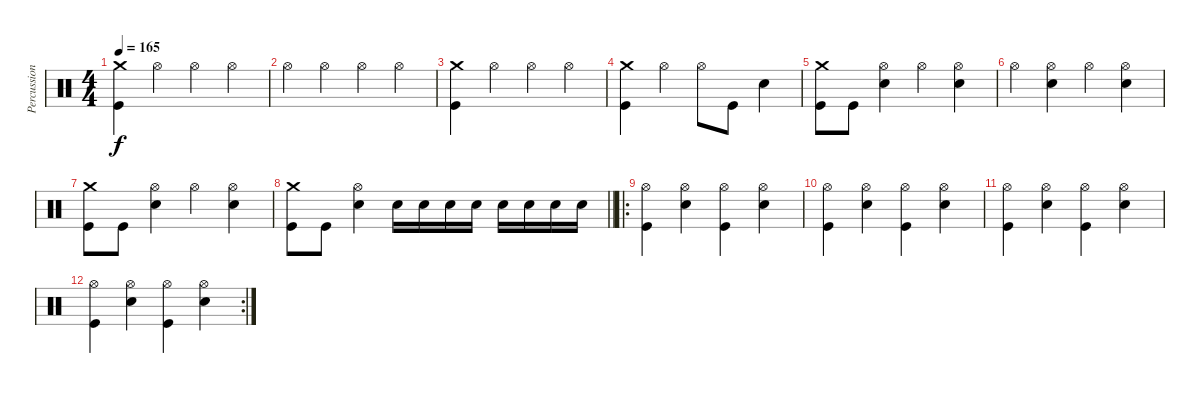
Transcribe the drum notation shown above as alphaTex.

\track ("Percussion" "Percussion") {instrument percussion}
\staff {score}
\articulation defaults
\ts (4 4)
\tempo 165
\clef neutral
\ks c
("Crash medium (hit)" "Kick (hit)").4{dy f} "Hi-Hat (open)".4 "Hi-Hat (open)".4 "Hi-Hat (open)".4 |
"Hi-Hat (open)".4 "Hi-Hat (open)".4 "Hi-Hat (open)".4 "Hi-Hat (open)".4 |
("Crash medium (hit)" "Kick (hit)").4 "Hi-Hat (open)".4 "Hi-Hat (open)".4 "Hi-Hat (open)".4 |
("Crash medium (hit)" "Kick (hit)").4 "Hi-Hat (open)".4 "Hi-Hat (open)".8 "Kick (hit)".8 "Snare (hit) 2".4 |
("Crash medium (hit)" "Kick (hit)").8 "Kick (hit)".8 ("Hi-Hat (open)" "Snare (hit) 2").4 "Hi-Hat (open)".4 ("Hi-Hat (open)" "Snare (hit) 2").4 |
"Hi-Hat (open)".4 ("Hi-Hat (open)" "Snare (hit) 2").4 "Hi-Hat (open)".4 ("Hi-Hat (open)" "Snare (hit) 2").4 |
("Crash medium (hit)" "Kick (hit)").8 "Kick (hit)".8 ("Hi-Hat (open)" "Snare (hit) 2").4 "Hi-Hat (open)".4 ("Hi-Hat (open)" "Snare (hit) 2").4 |
\barLineRight lightlight
("Crash medium (hit)" "Kick (hit)").8 "Kick (hit)".8 ("Hi-Hat (open)" "Snare (hit) 2").4 "Snare (hit) 2".16 "Snare (hit) 2".16 "Snare (hit) 2".16 "Snare (hit) 2".16 "Snare (hit) 2".16 "Snare (hit) 2".16 "Snare (hit) 2".16 "Snare (hit) 2".16 |
\ro
("Hi-Hat (open)" "Kick (hit)").4 ("Hi-Hat (open)" "Snare (hit) 2").4 ("Hi-Hat (open)" "Kick (hit)").4 ("Hi-Hat (open)" "Snare (hit) 2").4 |
("Hi-Hat (open)" "Kick (hit)").4 ("Hi-Hat (open)" "Snare (hit) 2").4 ("Hi-Hat (open)" "Kick (hit)").4 ("Hi-Hat (open)" "Snare (hit) 2").4 |
("Hi-Hat (open)" "Kick (hit)").4 ("Hi-Hat (open)" "Snare (hit) 2").4 ("Hi-Hat (open)" "Kick (hit)").4 ("Hi-Hat (open)" "Snare (hit) 2").4 |
\rc 2
("Hi-Hat (open)" "Kick (hit)").4 ("Hi-Hat (open)" "Snare (hit) 2").4 ("Hi-Hat (open)" "Kick (hit)").4 ("Hi-Hat (open)" "Snare (hit) 2").4
